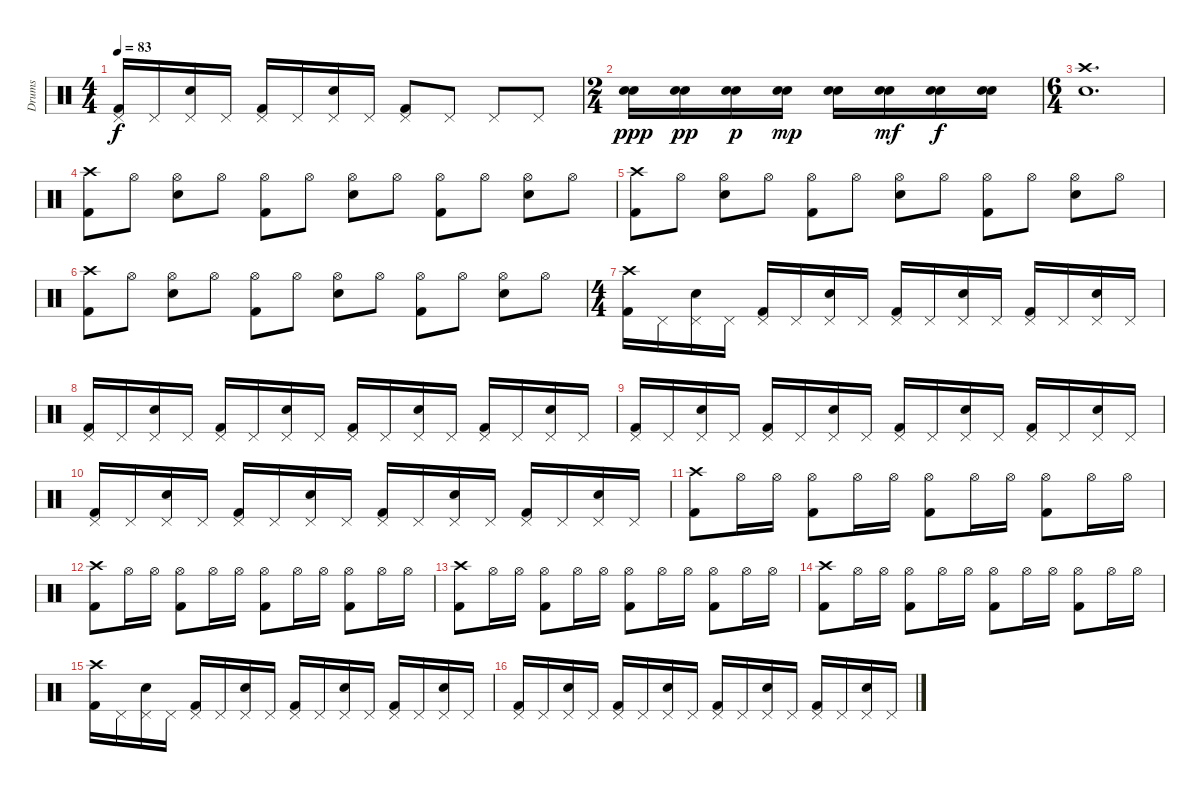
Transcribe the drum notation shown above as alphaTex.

\track ("Drums" "Drums") {instrument percussion}
\staff {score}
\articulation defaults
\ts (4 4)
\tempo 83
\clef neutral
\ks c
("Pedal Hi-Hat (hit)" "Kick (hit) 2").16{dy f} "Pedal Hi-Hat (hit)".16 ("Pedal Hi-Hat (hit)" "Snare (hit) 2").16 "Pedal Hi-Hat (hit)".16 ("Pedal Hi-Hat (hit)" "Kick (hit) 2").16 "Pedal Hi-Hat (hit)".16 ("Pedal Hi-Hat (hit)" "Snare (hit) 2").16 "Pedal Hi-Hat (hit)".16 ("Pedal Hi-Hat (hit)" "Kick (hit) 2").8 "Pedal Hi-Hat (hit)".8 "Pedal Hi-Hat (hit)".8 "Pedal Hi-Hat (hit)".8 |
\ts (2 4)
("Snare (hit) 2" "Snare (hit) 2").16{dy ppp} ("Snare (hit) 2" "Snare (hit) 2").16{dy pp} ("Snare (hit) 2" "Snare (hit) 2").16{dy p} ("Snare (hit) 2" "Snare (hit) 2").16{dy mp} ("Snare (hit) 2" "Snare (hit) 2").16 ("Snare (hit) 2" "Snare (hit) 2").16{dy mf} ("Snare (hit) 2" "Snare (hit) 2").16{dy f} ("Snare (hit) 2" "Snare (hit) 2").16 |
\ts (6 4)
("Crash high (hit)" "Snare (hit) 2").1{d} |
("Crash high (hit)" "Kick (hit) 2").8 "Hi-Hat (open)".8 ("Hi-Hat (open)" "Snare (hit) 2").8 "Hi-Hat (open)".8 ("Hi-Hat (open)" "Kick (hit) 2").8 "Hi-Hat (open)".8 ("Hi-Hat (open)" "Snare (hit) 2").8 "Hi-Hat (open)".8 ("Hi-Hat (open)" "Kick (hit) 2").8 "Hi-Hat (open)".8 ("Hi-Hat (open)" "Snare (hit) 2").8 "Hi-Hat (open)".8 |
("Crash high (hit)" "Kick (hit) 2").8 "Hi-Hat (open)".8 ("Hi-Hat (open)" "Snare (hit) 2").8 "Hi-Hat (open)".8 ("Hi-Hat (open)" "Kick (hit) 2").8 "Hi-Hat (open)".8 ("Hi-Hat (open)" "Snare (hit) 2").8 "Hi-Hat (open)".8 ("Hi-Hat (open)" "Kick (hit) 2").8 "Hi-Hat (open)".8 ("Hi-Hat (open)" "Snare (hit) 2").8 "Hi-Hat (open)".8 |
("Crash high (hit)" "Kick (hit) 2").8 "Hi-Hat (open)".8 ("Hi-Hat (open)" "Snare (hit) 2").8 "Hi-Hat (open)".8 ("Hi-Hat (open)" "Kick (hit) 2").8 "Hi-Hat (open)".8 ("Hi-Hat (open)" "Snare (hit) 2").8 "Hi-Hat (open)".8 ("Hi-Hat (open)" "Kick (hit) 2").8 "Hi-Hat (open)".8 ("Hi-Hat (open)" "Snare (hit) 2").8 "Hi-Hat (open)".8 |
\ts (4 4)
("Crash high (hit)" "Kick (hit) 2").16 "Pedal Hi-Hat (hit)".16 ("Pedal Hi-Hat (hit)" "Snare (hit) 2").16 "Pedal Hi-Hat (hit)".16 ("Pedal Hi-Hat (hit)" "Kick (hit) 2").16 "Pedal Hi-Hat (hit)".16 ("Pedal Hi-Hat (hit)" "Snare (hit) 2").16 "Pedal Hi-Hat (hit)".16 ("Pedal Hi-Hat (hit)" "Kick (hit) 2").16 "Pedal Hi-Hat (hit)".16 ("Pedal Hi-Hat (hit)" "Snare (hit) 2").16 "Pedal Hi-Hat (hit)".16 ("Pedal Hi-Hat (hit)" "Kick (hit) 2").16 "Pedal Hi-Hat (hit)".16 ("Pedal Hi-Hat (hit)" "Snare (hit) 2").16 "Pedal Hi-Hat (hit)".16 |
("Pedal Hi-Hat (hit)" "Kick (hit) 2").16 "Pedal Hi-Hat (hit)".16 ("Pedal Hi-Hat (hit)" "Snare (hit) 2").16 "Pedal Hi-Hat (hit)".16 ("Pedal Hi-Hat (hit)" "Kick (hit) 2").16 "Pedal Hi-Hat (hit)".16 ("Pedal Hi-Hat (hit)" "Snare (hit) 2").16 "Pedal Hi-Hat (hit)".16 ("Pedal Hi-Hat (hit)" "Kick (hit) 2").16 "Pedal Hi-Hat (hit)".16 ("Pedal Hi-Hat (hit)" "Snare (hit) 2").16 "Pedal Hi-Hat (hit)".16 ("Pedal Hi-Hat (hit)" "Kick (hit) 2").16 "Pedal Hi-Hat (hit)".16 ("Pedal Hi-Hat (hit)" "Snare (hit) 2").16 "Pedal Hi-Hat (hit)".16 |
("Pedal Hi-Hat (hit)" "Kick (hit) 2").16 "Pedal Hi-Hat (hit)".16 ("Pedal Hi-Hat (hit)" "Snare (hit) 2").16 "Pedal Hi-Hat (hit)".16 ("Pedal Hi-Hat (hit)" "Kick (hit) 2").16 "Pedal Hi-Hat (hit)".16 ("Pedal Hi-Hat (hit)" "Snare (hit) 2").16 "Pedal Hi-Hat (hit)".16 ("Pedal Hi-Hat (hit)" "Kick (hit) 2").16 "Pedal Hi-Hat (hit)".16 ("Pedal Hi-Hat (hit)" "Snare (hit) 2").16 "Pedal Hi-Hat (hit)".16 ("Pedal Hi-Hat (hit)" "Kick (hit) 2").16 "Pedal Hi-Hat (hit)".16 ("Pedal Hi-Hat (hit)" "Snare (hit) 2").16 "Pedal Hi-Hat (hit)".16 |
("Pedal Hi-Hat (hit)" "Kick (hit) 2").16 "Pedal Hi-Hat (hit)".16 ("Pedal Hi-Hat (hit)" "Snare (hit) 2").16 "Pedal Hi-Hat (hit)".16 ("Pedal Hi-Hat (hit)" "Kick (hit) 2").16 "Pedal Hi-Hat (hit)".16 ("Pedal Hi-Hat (hit)" "Snare (hit) 2").16 "Pedal Hi-Hat (hit)".16 ("Pedal Hi-Hat (hit)" "Kick (hit) 2").16 "Pedal Hi-Hat (hit)".16 ("Pedal Hi-Hat (hit)" "Snare (hit) 2").16 "Pedal Hi-Hat (hit)".16 ("Pedal Hi-Hat (hit)" "Kick (hit) 2").16 "Pedal Hi-Hat (hit)".16 ("Pedal Hi-Hat (hit)" "Snare (hit) 2").16 "Pedal Hi-Hat (hit)".16 |
("Crash high (hit)" "Kick (hit) 2").8 "Hi-Hat (open)".16 "Hi-Hat (open)".16 ("Hi-Hat (open)" "Kick (hit) 2").8 "Hi-Hat (open)".16 "Hi-Hat (open)".16 ("Hi-Hat (open)" "Kick (hit) 2").8 "Hi-Hat (open)".16 "Hi-Hat (open)".16 ("Hi-Hat (open)" "Kick (hit) 2").8 "Hi-Hat (open)".16 "Hi-Hat (open)".16 |
("Crash high (hit)" "Kick (hit) 2").8 "Hi-Hat (open)".16 "Hi-Hat (open)".16 ("Hi-Hat (open)" "Kick (hit) 2").8 "Hi-Hat (open)".16 "Hi-Hat (open)".16 ("Hi-Hat (open)" "Kick (hit) 2").8 "Hi-Hat (open)".16 "Hi-Hat (open)".16 ("Hi-Hat (open)" "Kick (hit) 2").8 "Hi-Hat (open)".16 "Hi-Hat (open)".16 |
("Crash high (hit)" "Kick (hit) 2").8 "Hi-Hat (open)".16 "Hi-Hat (open)".16 ("Hi-Hat (open)" "Kick (hit) 2").8 "Hi-Hat (open)".16 "Hi-Hat (open)".16 ("Hi-Hat (open)" "Kick (hit) 2").8 "Hi-Hat (open)".16 "Hi-Hat (open)".16 ("Hi-Hat (open)" "Kick (hit) 2").8 "Hi-Hat (open)".16 "Hi-Hat (open)".16 |
("Crash high (hit)" "Kick (hit) 2").8 "Hi-Hat (open)".16 "Hi-Hat (open)".16 ("Hi-Hat (open)" "Kick (hit) 2").8 "Hi-Hat (open)".16 "Hi-Hat (open)".16 ("Hi-Hat (open)" "Kick (hit) 2").8 "Hi-Hat (open)".16 "Hi-Hat (open)".16 ("Hi-Hat (open)" "Kick (hit) 2").8 "Hi-Hat (open)".16 "Hi-Hat (open)".16 |
("Crash high (hit)" "Kick (hit) 2").16 "Pedal Hi-Hat (hit)".16 ("Pedal Hi-Hat (hit)" "Snare (hit) 2").16 "Pedal Hi-Hat (hit)".16 ("Pedal Hi-Hat (hit)" "Kick (hit) 2").16 "Pedal Hi-Hat (hit)".16 ("Pedal Hi-Hat (hit)" "Snare (hit) 2").16 "Pedal Hi-Hat (hit)".16 ("Pedal Hi-Hat (hit)" "Kick (hit) 2").16 "Pedal Hi-Hat (hit)".16 ("Pedal Hi-Hat (hit)" "Snare (hit) 2").16 "Pedal Hi-Hat (hit)".16 ("Pedal Hi-Hat (hit)" "Kick (hit) 2").16 "Pedal Hi-Hat (hit)".16 ("Pedal Hi-Hat (hit)" "Snare (hit) 2").16 "Pedal Hi-Hat (hit)".16 |
("Pedal Hi-Hat (hit)" "Kick (hit) 2").16 "Pedal Hi-Hat (hit)".16 ("Pedal Hi-Hat (hit)" "Snare (hit) 2").16 "Pedal Hi-Hat (hit)".16 ("Pedal Hi-Hat (hit)" "Kick (hit) 2").16 "Pedal Hi-Hat (hit)".16 ("Pedal Hi-Hat (hit)" "Snare (hit) 2").16 "Pedal Hi-Hat (hit)".16 ("Pedal Hi-Hat (hit)" "Kick (hit) 2").16 "Pedal Hi-Hat (hit)".16 ("Pedal Hi-Hat (hit)" "Snare (hit) 2").16 "Pedal Hi-Hat (hit)".16 ("Pedal Hi-Hat (hit)" "Kick (hit) 2").16 "Pedal Hi-Hat (hit)".16 ("Pedal Hi-Hat (hit)" "Snare (hit) 2").16 "Pedal Hi-Hat (hit)".16
